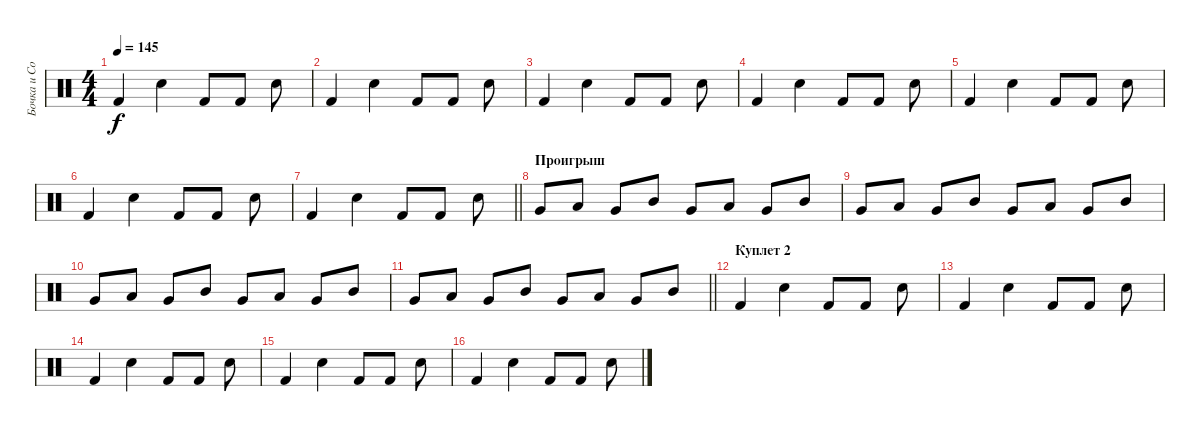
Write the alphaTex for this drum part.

\track ("Бочка и Сольник" "Бочка и Со") {instrument percussion}
\staff {score}
\articulation defaults
\ts (4 4)
\tempo 145
\clef neutral
\ks c "Kick (hit) 2".4{dy f} "Snare (hit) 2".4 "Kick (hit) 2".8 "Kick (hit) 2".8 "Snare (hit) 2".8
|
"Kick (hit) 2".4 "Snare (hit) 2".4 "Kick (hit) 2".8 "Kick (hit) 2".8 "Snare (hit) 2".8 |
"Kick (hit) 2".4 "Snare (hit) 2".4 "Kick (hit) 2".8 "Kick (hit) 2".8 "Snare (hit) 2".8 |
"Kick (hit) 2".4 "Snare (hit) 2".4 "Kick (hit) 2".8 "Kick (hit) 2".8 "Snare (hit) 2".8 |
"Kick (hit) 2".4 "Snare (hit) 2".4 "Kick (hit) 2".8 "Kick (hit) 2".8 "Snare (hit) 2".8 |
"Kick (hit) 2".4 "Snare (hit) 2".4 "Kick (hit) 2".8 "Kick (hit) 2".8 "Snare (hit) 2".8 |
\barLineRight lightlight "Kick (hit) 2".4 "Snare (hit) 2".4 "Kick (hit) 2".8 "Kick (hit) 2".8 "Snare (hit) 2".8
|
\section ("" "Проигрыш")
"Very Low Tom (hit)".8 "Low Tom (hit)".8 "Very Low Tom (hit)".8 "Mid Tom (hit)".8 "Very Low Tom (hit)".8 "Low Tom (hit)".8 "Very Low Tom (hit)".8 "Mid Tom (hit)".8 |
"Very Low Tom (hit)".8 "Low Tom (hit)".8 "Very Low Tom (hit)".8 "Mid Tom (hit)".8 "Very Low Tom (hit)".8 "Low Tom (hit)".8 "Very Low Tom (hit)".8 "Mid Tom (hit)".8 |
"Very Low Tom (hit)".8 "Low Tom (hit)".8 "Very Low Tom (hit)".8 "Mid Tom (hit)".8 "Very Low Tom (hit)".8 "Low Tom (hit)".8 "Very Low Tom (hit)".8 "Mid Tom (hit)".8 |
\barLineRight lightlight "Very Low Tom (hit)".8 "Low Tom (hit)".8 "Very Low Tom (hit)".8 "Mid Tom (hit)".8 "Very Low Tom (hit)".8 "Low Tom (hit)".8 "Very Low Tom (hit)".8 "Mid Tom (hit)".8
|
\section ("" "Куплет 2")
"Kick (hit) 2".4 "Snare (hit) 2".4 "Kick (hit) 2".8 "Kick (hit) 2".8 "Snare (hit) 2".8 |
"Kick (hit) 2".4 "Snare (hit) 2".4 "Kick (hit) 2".8 "Kick (hit) 2".8 "Snare (hit) 2".8 |
"Kick (hit) 2".4 "Snare (hit) 2".4 "Kick (hit) 2".8 "Kick (hit) 2".8 "Snare (hit) 2".8 |
"Kick (hit) 2".4 "Snare (hit) 2".4 "Kick (hit) 2".8 "Kick (hit) 2".8 "Snare (hit) 2".8 |
"Kick (hit) 2".4 "Snare (hit) 2".4 "Kick (hit) 2".8 "Kick (hit) 2".8 "Snare (hit) 2".8
